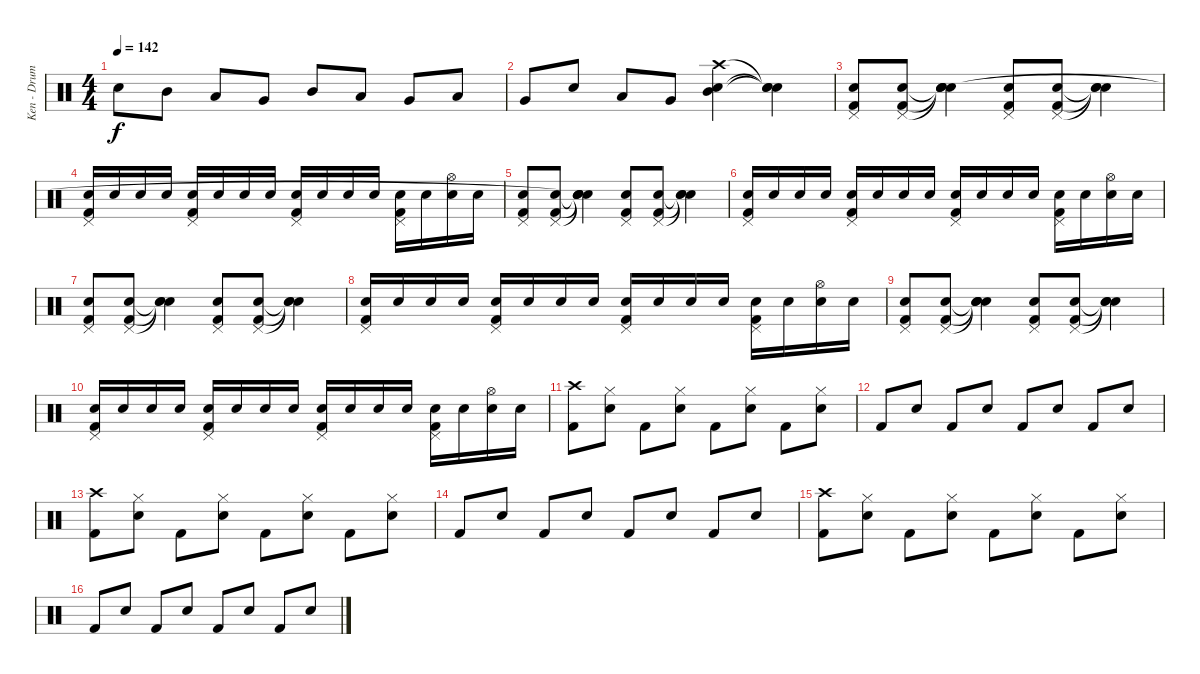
\track ("Ken - Drums" "Ken - Drum") {instrument percussion}
\staff {score}
\articulation defaults
\ts (4 4)
\tempo 142
\clef neutral
\ks c "Electric Snare (hit)".8{dy f} "Mid Tom (hit)".8 "Low Tom (hit)".8 "Very Low Tom (hit)".8 "Mid Tom (hit)".8 "Low Tom (hit)".8 "Very Low Tom (hit)".8 "Low Tom (hit)".8
|
"Very Low Tom (hit)".8 "Electric Snare (hit)".8 "Low Tom (hit)".8 "Very Low Tom (hit)".8 ("Crash high (hit)" "Electric Snare (hit)" "Mid Tom (hit)").4 ("Snare (hit)"{t} "Snare (hit)"{t} "Snare (hit)"{t}).4 |
("Pedal Hi-Hat (hit)" "Electric Snare (hit)" "Kick (hit) 2").8 ("Pedal Hi-Hat (hit)" "Electric Snare (hit)" "Kick (hit) 2").8 ("Snare (hit)"{t} "Snare (hit)"{t} "Snare (hit)"{t} "Snare (hit)").4 ("Pedal Hi-Hat (hit)" "Electric Snare (hit)" "Kick (hit) 2").8 ("Pedal Hi-Hat (hit)" "Electric Snare (hit)" "Kick (hit) 2").8 ("Snare (hit)"{t} "Snare (hit)"{t} "Snare (hit)"{t}).4 |
("Pedal Hi-Hat (hit)" "Electric Snare (hit)" "Kick (hit) 2").16 "Electric Snare (hit)".16 "Electric Snare (hit)".16 "Electric Snare (hit)".16 ("Pedal Hi-Hat (hit)" "Electric Snare (hit)" "Kick (hit) 2").16 "Electric Snare (hit)".16 "Electric Snare (hit)".16 "Electric Snare (hit)".16 ("Pedal Hi-Hat (hit)" "Electric Snare (hit)" "Kick (hit) 2").16 "Electric Snare (hit)".16 "Electric Snare (hit)".16 "Electric Snare (hit)".16 ("Pedal Hi-Hat (hit)" "Electric Snare (hit)" "Kick (hit) 2").16 "Electric Snare (hit)".16 ("Hi-Hat (open)" "Electric Snare (hit)").16 "Electric Snare (hit)".16 |
("Pedal Hi-Hat (hit)" "Electric Snare (hit)" "Kick (hit) 2").8 ("Pedal Hi-Hat (hit)" "Electric Snare (hit)" "Kick (hit) 2").8 ("Snare (hit)"{t} "Snare (hit)"{t} "Snare (hit)"{t} "Snare (hit)"{t}).4 ("Pedal Hi-Hat (hit)" "Electric Snare (hit)" "Kick (hit) 2").8 ("Pedal Hi-Hat (hit)" "Electric Snare (hit)" "Kick (hit) 2").8 ("Snare (hit)"{t} "Snare (hit)"{t} "Snare (hit)"{t}).4 |
("Pedal Hi-Hat (hit)" "Electric Snare (hit)" "Kick (hit) 2").16 "Electric Snare (hit)".16 "Electric Snare (hit)".16 "Electric Snare (hit)".16 ("Pedal Hi-Hat (hit)" "Electric Snare (hit)" "Kick (hit) 2").16 "Electric Snare (hit)".16 "Electric Snare (hit)".16 "Electric Snare (hit)".16 ("Pedal Hi-Hat (hit)" "Electric Snare (hit)" "Kick (hit) 2").16 "Electric Snare (hit)".16 "Electric Snare (hit)".16 "Electric Snare (hit)".16 ("Pedal Hi-Hat (hit)" "Electric Snare (hit)" "Kick (hit) 2").16 "Electric Snare (hit)".16 ("Hi-Hat (open)" "Electric Snare (hit)").16 "Electric Snare (hit)".16 |
("Pedal Hi-Hat (hit)" "Electric Snare (hit)" "Kick (hit) 2").8 ("Pedal Hi-Hat (hit)" "Electric Snare (hit)" "Kick (hit) 2").8 ("Snare (hit)"{t} "Snare (hit)"{t} "Snare (hit)"{t}).4 ("Pedal Hi-Hat (hit)" "Electric Snare (hit)" "Kick (hit) 2").8 ("Pedal Hi-Hat (hit)" "Electric Snare (hit)" "Kick (hit) 2").8 ("Snare (hit)"{t} "Snare (hit)"{t} "Snare (hit)"{t}).4 |
("Pedal Hi-Hat (hit)" "Electric Snare (hit)" "Kick (hit) 2").16 "Electric Snare (hit)".16 "Electric Snare (hit)".16 "Electric Snare (hit)".16 ("Pedal Hi-Hat (hit)" "Electric Snare (hit)" "Kick (hit) 2").16 "Electric Snare (hit)".16 "Electric Snare (hit)".16 "Electric Snare (hit)".16 ("Pedal Hi-Hat (hit)" "Electric Snare (hit)" "Kick (hit) 2").16 "Electric Snare (hit)".16 "Electric Snare (hit)".16 "Electric Snare (hit)".16 ("Pedal Hi-Hat (hit)" "Electric Snare (hit)" "Kick (hit) 2").16 "Electric Snare (hit)".16 ("Hi-Hat (open)" "Electric Snare (hit)").16 "Electric Snare (hit)".16 |
("Pedal Hi-Hat (hit)" "Electric Snare (hit)" "Kick (hit) 2").8 ("Pedal Hi-Hat (hit)" "Electric Snare (hit)" "Kick (hit) 2").8 ("Snare (hit)"{t} "Snare (hit)"{t} "Snare (hit)"{t} "Snare (hit)").4 ("Pedal Hi-Hat (hit)" "Electric Snare (hit)" "Kick (hit) 2").8 ("Pedal Hi-Hat (hit)" "Electric Snare (hit)" "Kick (hit) 2").8 ("Snare (hit)"{t} "Snare (hit)"{t} "Snare (hit)"{t}).4 |
("Pedal Hi-Hat (hit)" "Electric Snare (hit)" "Kick (hit) 2").16 "Electric Snare (hit)".16 "Electric Snare (hit)".16 "Electric Snare (hit)".16 ("Pedal Hi-Hat (hit)" "Electric Snare (hit)" "Kick (hit) 2").16 "Electric Snare (hit)".16 "Electric Snare (hit)".16 "Electric Snare (hit)".16 ("Pedal Hi-Hat (hit)" "Electric Snare (hit)" "Kick (hit) 2").16 "Electric Snare (hit)".16 "Electric Snare (hit)".16 "Electric Snare (hit)".16 ("Pedal Hi-Hat (hit)" "Electric Snare (hit)" "Kick (hit) 2").16 "Electric Snare (hit)".16 ("Hi-Hat (open)" "Electric Snare (hit)").16 "Electric Snare (hit)".16 |
("Crash high (hit)" "Kick (hit) 2").8 ("Hi-Hat (closed)" "Electric Snare (hit)").8 "Kick (hit) 2".8 ("Hi-Hat (closed)" "Electric Snare (hit)").8 "Kick (hit) 2".8 ("Hi-Hat (closed)" "Electric Snare (hit)").8 "Kick (hit) 2".8 ("Hi-Hat (closed)" "Electric Snare (hit)").8 |
"Kick (hit) 2".8 "Electric Snare (hit)".8 "Kick (hit) 2".8 "Electric Snare (hit)".8 "Kick (hit) 2".8 "Electric Snare (hit)".8 "Kick (hit) 2".8 "Electric Snare (hit)".8 |
("Crash high (hit)" "Kick (hit) 2").8 ("Hi-Hat (closed)" "Electric Snare (hit)").8 "Kick (hit) 2".8 ("Hi-Hat (closed)" "Electric Snare (hit)").8 "Kick (hit) 2".8 ("Hi-Hat (closed)" "Electric Snare (hit)").8 "Kick (hit) 2".8 ("Hi-Hat (closed)" "Electric Snare (hit)").8 |
"Kick (hit) 2".8 "Electric Snare (hit)".8 "Kick (hit) 2".8 "Electric Snare (hit)".8 "Kick (hit) 2".8 "Electric Snare (hit)".8 "Kick (hit) 2".8 "Electric Snare (hit)".8 |
("Crash high (hit)" "Kick (hit) 2").8 ("Hi-Hat (closed)" "Electric Snare (hit)").8 "Kick (hit) 2".8 ("Hi-Hat (closed)" "Electric Snare (hit)").8 "Kick (hit) 2".8 ("Hi-Hat (closed)" "Electric Snare (hit)").8 "Kick (hit) 2".8 ("Hi-Hat (closed)" "Electric Snare (hit)").8 |
"Kick (hit) 2".8 "Electric Snare (hit)".8 "Kick (hit) 2".8 "Electric Snare (hit)".8 "Kick (hit) 2".8 "Electric Snare (hit)".8 "Kick (hit) 2".8 "Electric Snare (hit)".8
